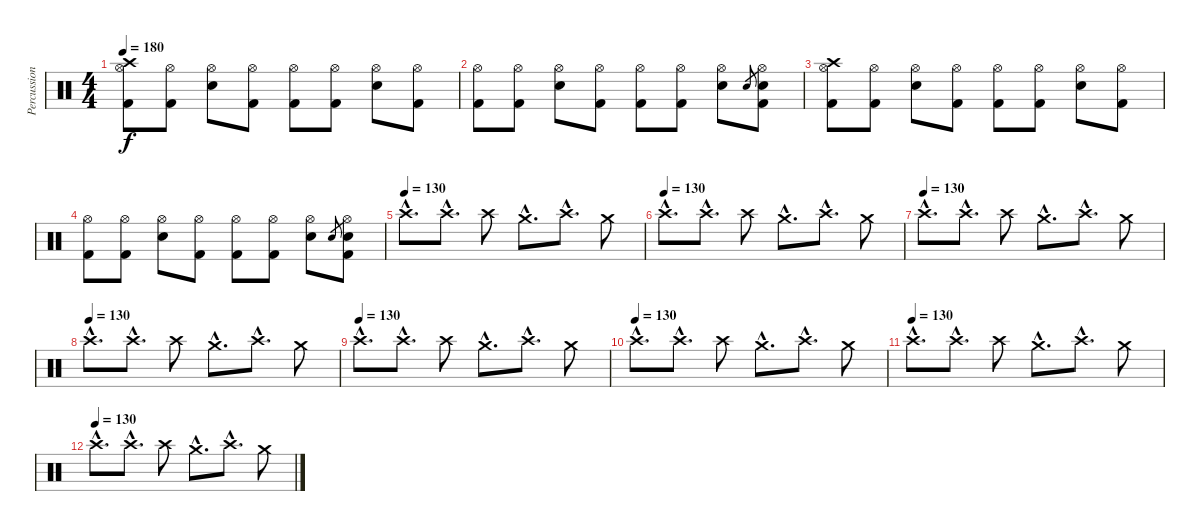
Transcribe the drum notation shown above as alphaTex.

\track ("Percussion" "Percussion") {instrument percussion}
\staff {score}
\articulation defaults
\ts (4 4)
\tempo 180
\clef neutral
\ks c
("Crash high (hit)" "Hi-Hat (open)" "Kick (hit) 2").8{dy f} ("Hi-Hat (open)" "Kick (hit) 2").8 ("Hi-Hat (open)" "Electric Snare (hit)").8 ("Hi-Hat (open)" "Kick (hit) 2").8 ("Hi-Hat (open)" "Kick (hit) 2").8 ("Hi-Hat (open)" "Kick (hit) 2").8 ("Hi-Hat (open)" "Electric Snare (hit)").8 ("Hi-Hat (open)" "Kick (hit) 2").8 |
("Hi-Hat (open)" "Kick (hit) 2").8 ("Hi-Hat (open)" "Kick (hit) 2").8 ("Hi-Hat (open)" "Electric Snare (hit)").8 ("Hi-Hat (open)" "Kick (hit) 2").8 ("Hi-Hat (open)" "Kick (hit) 2").8 ("Hi-Hat (open)" "Kick (hit) 2").8 ("Hi-Hat (open)" "Electric Snare (hit)").8 "Electric Snare (hit)".8{gr} ("Hi-Hat (open)" "Electric Snare (hit)" "Kick (hit) 2").8 |
("Crash high (hit)" "Hi-Hat (open)" "Kick (hit) 2").8 ("Hi-Hat (open)" "Kick (hit) 2").8 ("Hi-Hat (open)" "Electric Snare (hit)").8 ("Hi-Hat (open)" "Kick (hit) 2").8 ("Hi-Hat (open)" "Kick (hit) 2").8 ("Hi-Hat (open)" "Kick (hit) 2").8 ("Hi-Hat (open)" "Electric Snare (hit)").8 ("Hi-Hat (open)" "Kick (hit) 2").8 |
("Hi-Hat (open)" "Kick (hit) 2").8 ("Hi-Hat (open)" "Kick (hit) 2").8 ("Hi-Hat (open)" "Electric Snare (hit)").8 ("Hi-Hat (open)" "Kick (hit) 2").8 ("Hi-Hat (open)" "Kick (hit) 2").8 ("Hi-Hat (open)" "Kick (hit) 2").8 ("Hi-Hat (open)" "Electric Snare (hit)").8 "Electric Snare (hit)".8{gr} ("Hi-Hat (open)" "Electric Snare (hit)" "Kick (hit) 2").8 |
\tempo (130)
"Crash high (hit)"{hac}.8{d volume 13} "Crash high (hit)"{hac}.8{d} "Crash high (hit)".8 "Crash medium (hit)"{hac}.8{d volume 8} "Crash high (hit)"{hac}.8{d} "Crash medium (hit)".8 |
\tempo (130)
"Crash high (hit)"{hac}.8{d volume 13} "Crash high (hit)"{hac}.8{d} "Crash high (hit)".8 "Crash medium (hit)"{hac}.8{d volume 8} "Crash high (hit)"{hac}.8{d} "Crash medium (hit)".8 |
\tempo (130)
"Crash high (hit)"{hac}.8{d volume 13} "Crash high (hit)"{hac}.8{d} "Crash high (hit)".8 "Crash medium (hit)"{hac}.8{d volume 8} "Crash high (hit)"{hac}.8{d} "Crash medium (hit)".8 |
\tempo (130)
"Crash high (hit)"{hac}.8{d volume 13} "Crash high (hit)"{hac}.8{d} "Crash high (hit)".8 "Crash medium (hit)"{hac}.8{d volume 8} "Crash high (hit)"{hac}.8{d} "Crash medium (hit)".8 |
\tempo (130)
"Crash high (hit)"{hac}.8{d volume 13} "Crash high (hit)"{hac}.8{d} "Crash high (hit)".8 "Crash medium (hit)"{hac}.8{d volume 8} "Crash high (hit)"{hac}.8{d} "Crash medium (hit)".8 |
\tempo (130)
"Crash high (hit)"{hac}.8{d volume 13} "Crash high (hit)"{hac}.8{d} "Crash high (hit)".8 "Crash medium (hit)"{hac}.8{d volume 8} "Crash high (hit)"{hac}.8{d} "Crash medium (hit)".8 |
\tempo (130)
"Crash high (hit)"{hac}.8{d volume 13} "Crash high (hit)"{hac}.8{d} "Crash high (hit)".8 "Crash medium (hit)"{hac}.8{d volume 8} "Crash high (hit)"{hac}.8{d} "Crash medium (hit)".8 |
\tempo (130)
"Crash high (hit)"{hac}.8{d volume 13} "Crash high (hit)"{hac}.8{d} "Crash high (hit)".8 "Crash medium (hit)"{hac}.8{d volume 8} "Crash high (hit)"{hac}.8{d} "Crash medium (hit)".8
